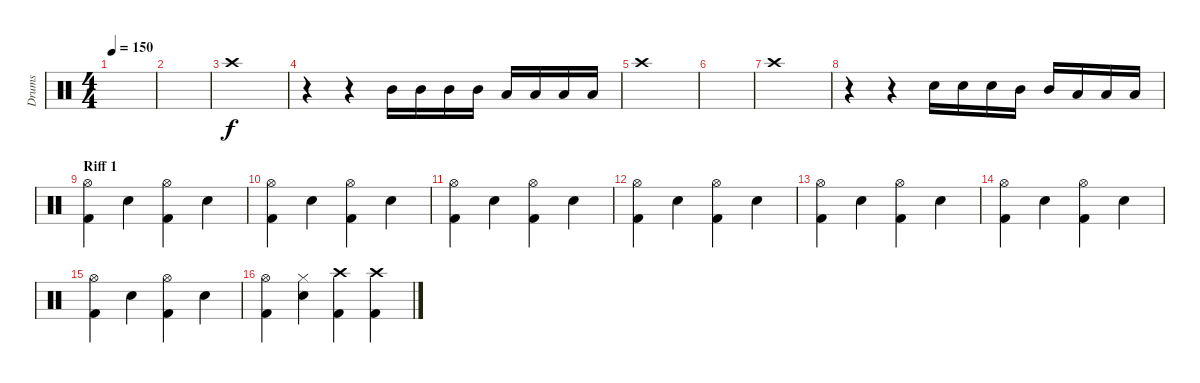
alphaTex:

\track ("Drums" "Drums") {instrument percussion}
\staff {score}
\articulation defaults
\ts (4 4)
\tempo 150
\clef neutral
\ks c
|
|
"Crash high (hit)".1 |
r.4 r.4 "Mid Tom (hit)".16 "Mid Tom (hit)".16 "Mid Tom (hit)".16 "Mid Tom (hit)".16 "Low Tom (hit)".16 "Low Tom (hit)".16 "Low Floor Tom (hit)".16 "Low Floor Tom (hit)".16 |
"Crash high (hit)".1 |
|
"Crash high (hit)".1 |
r.4 r.4 "Snare (hit) 2".16 "Snare (hit) 2".16 "Snare (hit) 2".16 "Mid Tom (hit)".16 "Mid Tom (hit)".16 "Low Tom (hit)".16 "Low Tom (hit)".16 "Low Floor Tom (hit)".16 |
\section ("" "Riff 1")
("Hi-Hat (open)" "Kick (hit) 2").4 "Snare (hit) 2".4 ("Hi-Hat (open)" "Kick (hit) 2").4 "Snare (hit) 2".4 |
("Hi-Hat (open)" "Kick (hit) 2").4 "Snare (hit) 2".4 ("Hi-Hat (open)" "Kick (hit) 2").4 "Snare (hit) 2".4 |
("Hi-Hat (open)" "Kick (hit) 2").4 "Snare (hit) 2".4 ("Hi-Hat (open)" "Kick (hit) 2").4 "Snare (hit) 2".4 |
("Hi-Hat (open)" "Kick (hit) 2").4 "Snare (hit) 2".4 ("Hi-Hat (open)" "Kick (hit) 2").4 "Snare (hit) 2".4 |
("Hi-Hat (open)" "Kick (hit) 2").4 "Snare (hit) 2".4 ("Hi-Hat (open)" "Kick (hit) 2").4 "Snare (hit) 2".4 |
("Hi-Hat (open)" "Kick (hit) 2").4 "Snare (hit) 2".4 ("Hi-Hat (open)" "Kick (hit) 2").4 "Snare (hit) 2".4 |
("Hi-Hat (open)" "Kick (hit) 2").4 "Snare (hit) 2".4 ("Hi-Hat (open)" "Kick (hit) 2").4 "Snare (hit) 2".4 |
("Hi-Hat (open)" "Kick (hit) 2").4 ("Hi-Hat (closed)" "Snare (hit) 2").4 ("Crash high (hit)" "Kick (hit) 2").4 ("Crash high (hit)" "Kick (hit) 2").4
